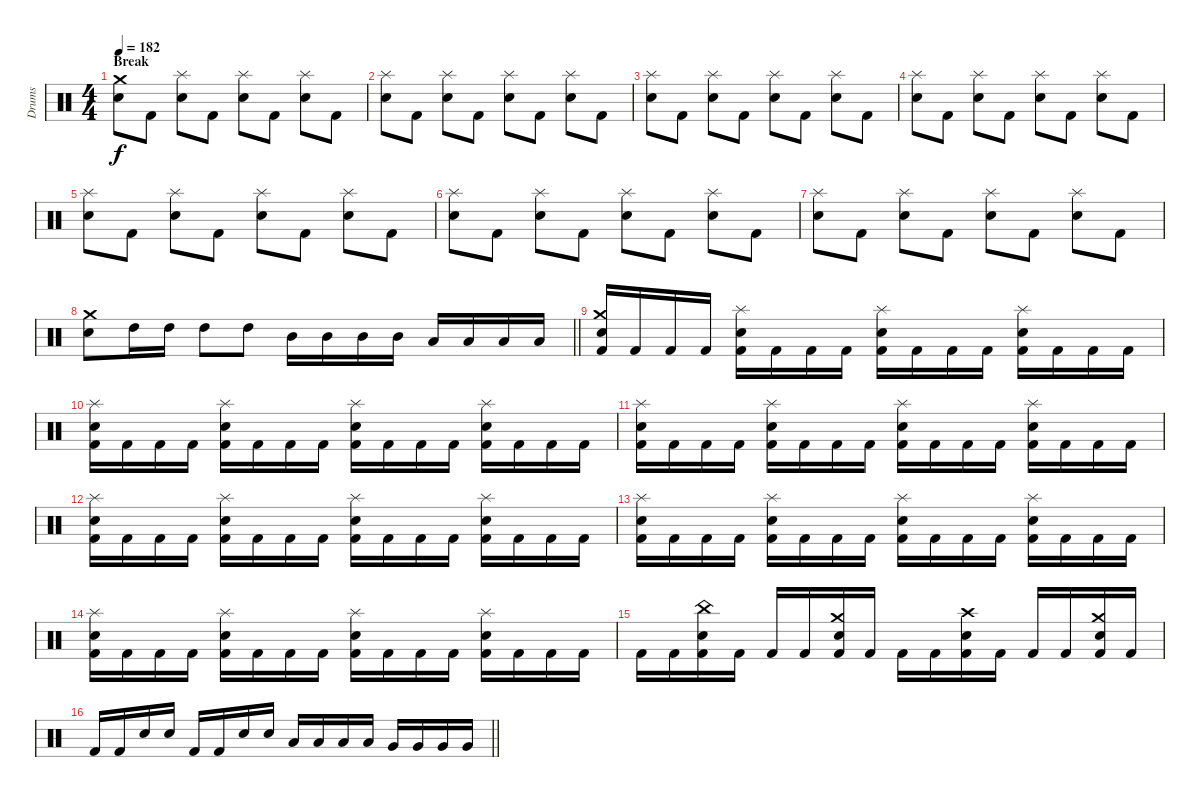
\track ("Drums" "Drums") {instrument percussion}
\staff {score}
\articulation defaults
\ts (4 4)
\section ("" "Break")
\tempo 182
\clef neutral
\ks c
("Snare (hit) 2" "Crash medium (hit)").8{dy f} "Kick (hit) 2".8 ("Snare (hit) 2" "Splash (hit)").8 "Kick (hit) 2".8 ("Snare (hit) 2" "Splash (hit)").8 "Kick (hit) 2".8 ("Snare (hit) 2" "Splash (hit)").8 "Kick (hit) 2".8 |
("Snare (hit) 2" "Splash (hit)").8 "Kick (hit) 2".8 ("Snare (hit) 2" "Splash (hit)").8 "Kick (hit) 2".8 ("Snare (hit) 2" "Splash (hit)").8 "Kick (hit) 2".8 ("Snare (hit) 2" "Splash (hit)").8 "Kick (hit) 2".8 |
("Snare (hit) 2" "Splash (hit)").8 "Kick (hit) 2".8 ("Snare (hit) 2" "Splash (hit)").8 "Kick (hit) 2".8 ("Snare (hit) 2" "Splash (hit)").8 "Kick (hit) 2".8 ("Snare (hit) 2" "Splash (hit)").8 "Kick (hit) 2".8 |
("Snare (hit) 2" "Splash (hit)").8 "Kick (hit) 2".8 ("Snare (hit) 2" "Splash (hit)").8 "Kick (hit) 2".8 ("Snare (hit) 2" "Splash (hit)").8 "Kick (hit) 2".8 ("Snare (hit) 2" "Splash (hit)").8 "Kick (hit) 2".8 |
("Snare (hit) 2" "Splash (hit)").8 "Kick (hit) 2".8 ("Snare (hit) 2" "Splash (hit)").8 "Kick (hit) 2".8 ("Snare (hit) 2" "Splash (hit)").8 "Kick (hit) 2".8 ("Snare (hit) 2" "Splash (hit)").8 "Kick (hit) 2".8 |
("Snare (hit) 2" "Splash (hit)").8 "Kick (hit) 2".8 ("Snare (hit) 2" "Splash (hit)").8 "Kick (hit) 2".8 ("Snare (hit) 2" "Splash (hit)").8 "Kick (hit) 2".8 ("Snare (hit) 2" "Splash (hit)").8 "Kick (hit) 2".8 |
("Snare (hit) 2" "Splash (hit)").8 "Kick (hit) 2".8 ("Snare (hit) 2" "Splash (hit)").8 "Kick (hit) 2".8 ("Snare (hit) 2" "Splash (hit)").8 "Kick (hit) 2".8 ("Snare (hit) 2" "Splash (hit)").8 "Kick (hit) 2".8 |
\barLineRight lightlight
("Snare (hit) 2" "Crash medium (hit)").8 "High Tom (hit)".16 "High Tom (hit)".16 "High Tom (hit)".8 "High Tom (hit)".8 "Mid Tom (hit)".16 "Mid Tom (hit)".16 "Mid Tom (hit)".16 "Mid Tom (hit)".16 "Low Tom (hit)".16 "Low Tom (hit)".16 "Low Tom (hit)".16 "Low Tom (hit)".16 |
\section ("" "")
("Kick (hit) 2" "Snare (hit) 2" "Crash medium (hit)").16 "Kick (hit) 2".16 "Kick (hit) 2".16 "Kick (hit) 2".16 ("Kick (hit) 2" "Snare (hit) 2" "Splash (hit)").16 "Kick (hit) 2".16 "Kick (hit) 2".16 "Kick (hit) 2".16 ("Kick (hit) 2" "Snare (hit) 2" "Splash (hit)").16 "Kick (hit) 2".16 "Kick (hit) 2".16 "Kick (hit) 2".16 ("Kick (hit) 2" "Snare (hit) 2" "Splash (hit)").16 "Kick (hit) 2".16 "Kick (hit) 2".16 "Kick (hit) 2".16 |
("Kick (hit) 2" "Snare (hit) 2" "Splash (hit)").16 "Kick (hit) 2".16 "Kick (hit) 2".16 "Kick (hit) 2".16 ("Kick (hit) 2" "Snare (hit) 2" "Splash (hit)").16 "Kick (hit) 2".16 "Kick (hit) 2".16 "Kick (hit) 2".16 ("Kick (hit) 2" "Snare (hit) 2" "Splash (hit)").16 "Kick (hit) 2".16 "Kick (hit) 2".16 "Kick (hit) 2".16 ("Kick (hit) 2" "Snare (hit) 2" "Splash (hit)").16 "Kick (hit) 2".16 "Kick (hit) 2".16 "Kick (hit) 2".16 |
("Kick (hit) 2" "Snare (hit) 2" "Splash (hit)").16 "Kick (hit) 2".16 "Kick (hit) 2".16 "Kick (hit) 2".16 ("Kick (hit) 2" "Snare (hit) 2" "Splash (hit)").16 "Kick (hit) 2".16 "Kick (hit) 2".16 "Kick (hit) 2".16 ("Kick (hit) 2" "Snare (hit) 2" "Splash (hit)").16 "Kick (hit) 2".16 "Kick (hit) 2".16 "Kick (hit) 2".16 ("Kick (hit) 2" "Snare (hit) 2" "Splash (hit)").16 "Kick (hit) 2".16 "Kick (hit) 2".16 "Kick (hit) 2".16 |
("Kick (hit) 2" "Snare (hit) 2" "Splash (hit)").16 "Kick (hit) 2".16 "Kick (hit) 2".16 "Kick (hit) 2".16 ("Kick (hit) 2" "Snare (hit) 2" "Splash (hit)").16 "Kick (hit) 2".16 "Kick (hit) 2".16 "Kick (hit) 2".16 ("Kick (hit) 2" "Snare (hit) 2" "Splash (hit)").16 "Kick (hit) 2".16 "Kick (hit) 2".16 "Kick (hit) 2".16 ("Kick (hit) 2" "Snare (hit) 2" "Splash (hit)").16 "Kick (hit) 2".16 "Kick (hit) 2".16 "Kick (hit) 2".16 |
("Kick (hit) 2" "Snare (hit) 2" "Splash (hit)").16 "Kick (hit) 2".16 "Kick (hit) 2".16 "Kick (hit) 2".16 ("Kick (hit) 2" "Snare (hit) 2" "Splash (hit)").16 "Kick (hit) 2".16 "Kick (hit) 2".16 "Kick (hit) 2".16 ("Kick (hit) 2" "Snare (hit) 2" "Splash (hit)").16 "Kick (hit) 2".16 "Kick (hit) 2".16 "Kick (hit) 2".16 ("Kick (hit) 2" "Snare (hit) 2" "Splash (hit)").16 "Kick (hit) 2".16 "Kick (hit) 2".16 "Kick (hit) 2".16 |
("Kick (hit) 2" "Snare (hit) 2" "Splash (hit)").16 "Kick (hit) 2".16 "Kick (hit) 2".16 "Kick (hit) 2".16 ("Kick (hit) 2" "Snare (hit) 2" "Splash (hit)").16 "Kick (hit) 2".16 "Kick (hit) 2".16 "Kick (hit) 2".16 ("Kick (hit) 2" "Snare (hit) 2" "Splash (hit)").16 "Kick (hit) 2".16 "Kick (hit) 2".16 "Kick (hit) 2".16 ("Kick (hit) 2" "Snare (hit) 2" "Splash (hit)").16 "Kick (hit) 2".16 "Kick (hit) 2".16 "Kick (hit) 2".16 |
"Kick (hit) 2".16 "Kick (hit) 2".16 ("Kick (hit) 2" "Snare (hit) 2" "China (hit)").16 "Kick (hit) 2".16 "Kick (hit) 2".16 "Kick (hit) 2".16 ("Kick (hit) 2" "Snare (hit) 2" "Crash medium (hit)").16 "Kick (hit) 2".16 "Kick (hit) 2".16 "Kick (hit) 2".16 ("Kick (hit) 2" "Snare (hit) 2" "Crash high (hit)").16 "Kick (hit) 2".16 "Kick (hit) 2".16 "Kick (hit) 2".16 ("Kick (hit) 2" "Snare (hit) 2" "Crash medium (hit)").16 "Kick (hit) 2".16 |
\barLineRight lightlight "Kick (hit) 2".16 "Kick (hit) 2".16 "Snare (hit) 2".16 "Snare (hit) 2".16 "Kick (hit) 2".16 "Kick (hit) 2".16 "Snare (hit) 2".16 "Snare (hit) 2".16 "Low Tom (hit)".16 "Low Tom (hit)".16 "Low Tom (hit)".16 "Low Tom (hit)".16 "Very Low Tom (hit)".16 "Very Low Tom (hit)".16 "Very Low Tom (hit)".16 "Very Low Tom (hit)".16
